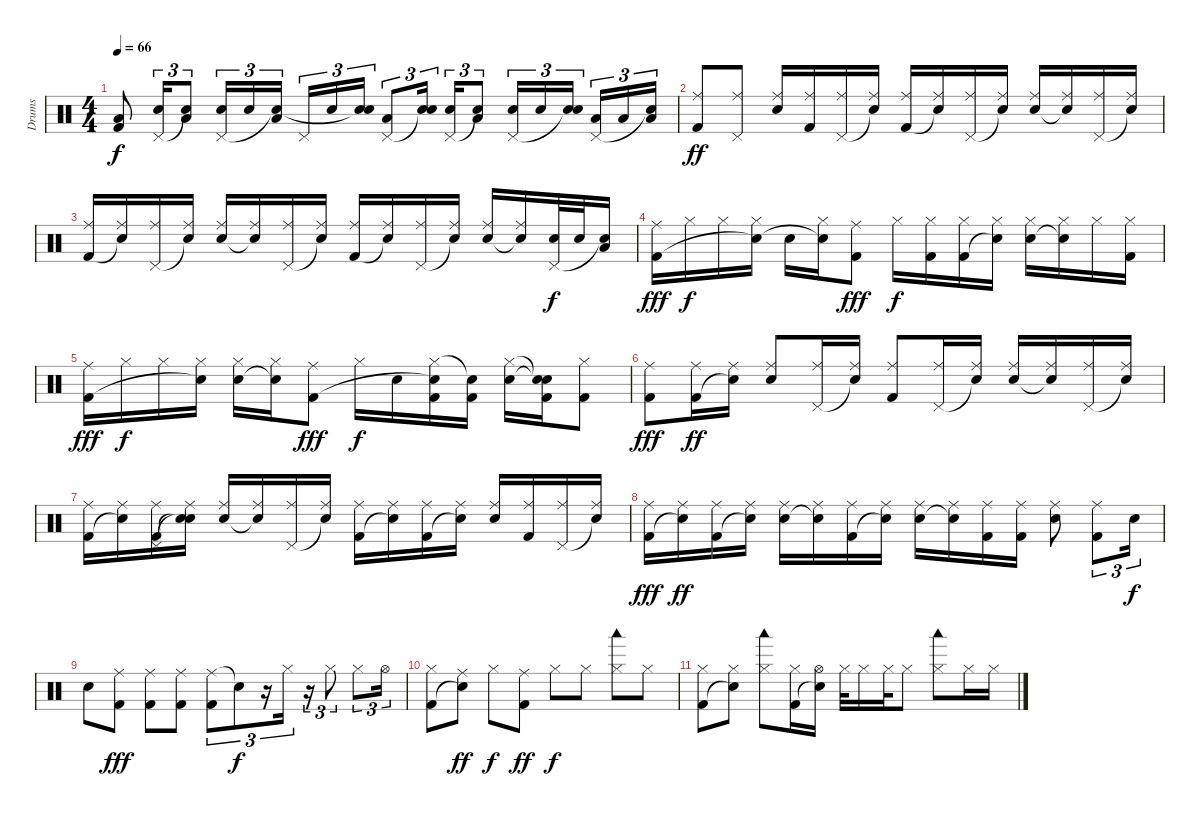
\track ("Drums" "Drums") {instrument percussion}
\staff {score}
\articulation defaults
\ts (4 4)
\tempo 66
\clef neutral
\ks c
("Low Tom (hit)" "Kick (hit) 2").8{dy f} ("Electric Snare (hit)" "Pedal Hi-Hat (hit)").16{tu (3 2)} ("Low Tom (hit)" "Snare (hit)"{t}).8{tu (3 2)} ("Electric Snare (hit)" "Pedal Hi-Hat (hit)").16{tu (3 2)} "Electric Snare (hit)".16{tu (3 2)} ("Low Tom (hit)" "Snare (hit)"{t}).16{tu (3 2)} "Pedal Hi-Hat (hit)".16{tu (3 2)} "Electric Snare (hit)".16{tu (3 2)} ("Electric Snare (hit)" "Snare (hit)"{t}).16{tu (3 2)} ("Low Tom (hit)" "Pedal Hi-Hat (hit)").8{tu (3 2)} ("Electric Snare (hit)" "Snare (hit)"{t}).16{tu (3 2)} ("Electric Snare (hit)" "Pedal Hi-Hat (hit)").16{tu (3 2)} ("Low Tom (hit)" "Snare (hit)"{t}).8{tu (3 2)} ("Electric Snare (hit)" "Pedal Hi-Hat (hit)").16{tu (3 2)} "Electric Snare (hit)".16{tu (3 2)} ("Electric Snare (hit)" "Snare (hit)"{t}).16{tu (3 2)} ("Low Tom (hit)" "Pedal Hi-Hat (hit)").16{tu (3 2)} "Low Tom (hit)".16{tu (3 2)} ("Low Tom (hit)" "Snare (hit)"{t}).16{tu (3 2)} |
("Ride (middle)" "Kick (hit) 2").8{dy ff} ("Ride (middle)" "Pedal Hi-Hat (hit)").8 ("Ride (middle)" "Electric Snare (hit)").16 ("Ride (middle)" "Kick (hit) 2").16 ("Ride (middle)" "Pedal Hi-Hat (hit)").16 ("Ride (middle)" "Snare (hit)"{t}).16 ("Ride (middle)" "Kick (hit) 2").16 ("Ride (middle)" "Snare (hit)"{t}).16 ("Ride (middle)" "Pedal Hi-Hat (hit)").16 ("Ride (middle)" "Snare (hit)"{t}).16 ("Ride (middle)" "Electric Snare (hit)").16 ("Ride (middle)" "Snare (hit)"{t}).16 ("Ride (middle)" "Pedal Hi-Hat (hit)").16 ("Ride (middle)" "Snare (hit)"{t}).16 |
("Ride (middle)" "Kick (hit) 2").16 ("Ride (middle)" "Snare (hit)"{t}).16 ("Ride (middle)" "Pedal Hi-Hat (hit)").16 ("Ride (middle)" "Snare (hit)"{t}).16 ("Ride (middle)" "Electric Snare (hit)").16 ("Ride (middle)" "Snare (hit)"{t}).16 ("Ride (middle)" "Pedal Hi-Hat (hit)").16 ("Ride (middle)" "Snare (hit)"{t}).16 ("Ride (middle)" "Kick (hit) 2").16 ("Ride (middle)" "Snare (hit)"{t}).16 ("Ride (middle)" "Pedal Hi-Hat (hit)").16 ("Ride (middle)" "Snare (hit)"{t}).16 ("Ride (middle)" "Electric Snare (hit)").16 ("Ride (middle)" "Snare (hit)"{t}).16 ("Electric Snare (hit)" "Pedal Hi-Hat (hit)").32{dy f} "Electric Snare (hit)".32 ("Low Tom (hit)" "Snare (hit)"{t}).16 |
("Ride (middle)" "Kick (hit) 2").16{dy fff} "Hi-Hat (closed)".16{dy f} "Hi-Hat (closed)".16 ("Hi-Hat (closed)" "Snare (hit)"{t}).16 "Electric Snare (hit)".16 ("Hi-Hat (closed)" "Snare (hit)"{t}).16 ("Ride (middle)" "Kick (hit) 2").8{dy fff} "Hi-Hat (closed)".16{dy f} ("Hi-Hat (closed)" "Kick (hit) 2").16 ("Hi-Hat (closed)" "Kick (hit) 2").16 ("Hi-Hat (closed)" "Snare (hit)"{t}).16 ("Hi-Hat (closed)" "Electric Snare (hit)").16 ("Hi-Hat (closed)" "Snare (hit)"{t}).16 "Hi-Hat (closed)".16 ("Hi-Hat (closed)" "Kick (hit) 2").16 |
("Ride (middle)" "Kick (hit) 2").16{dy fff} "Hi-Hat (closed)".16{dy f} "Hi-Hat (closed)".16 ("Hi-Hat (closed)" "Snare (hit)"{t}).16 ("Hi-Hat (closed)" "Electric Snare (hit)").16 ("Hi-Hat (closed)" "Snare (hit)"{t}).16 ("Ride (middle)" "Kick (hit) 2").8{dy fff} "Hi-Hat (closed)".16{dy f} "Electric Snare (hit)".16 ("Hi-Hat (closed)" "Snare (hit)"{t} "Kick (hit) 2").16 ("Snare (hit)"{t} "Kick (hit) 2").16 ("Hi-Hat (closed)" "Electric Snare (hit)").16 ("Snare (hit)"{t} "Snare (hit)"{t} "Kick (hit) 2").16 ("Hi-Hat (closed)" "Kick (hit) 2").8 |
("Ride (middle)" "Kick (hit) 2").8{dy fff} ("Ride (middle)" "Kick (hit) 2").16{dy ff} ("Ride (middle)" "Snare (hit)"{t}).16 ("Ride (middle)" "Electric Snare (hit)").8 ("Ride (middle)" "Pedal Hi-Hat (hit)").16 ("Ride (middle)" "Snare (hit)"{t}).16 ("Ride (middle)" "Kick (hit) 2").8 ("Ride (middle)" "Pedal Hi-Hat (hit)").16 ("Ride (middle)" "Snare (hit)"{t}).16 ("Ride (middle)" "Electric Snare (hit)").16 ("Ride (middle)" "Snare (hit)"{t}).16 ("Ride (middle)" "Pedal Hi-Hat (hit)").16 ("Ride (middle)" "Snare (hit)"{t}).16 |
("Ride (middle)" "Kick (hit) 2").16 ("Ride (middle)" "Snare (hit)"{t}).16 ("Ride (middle)" "Kick (hit) 2" "Pedal Hi-Hat (hit)").16 ("Ride (middle)" "Snare (hit)"{t} "Snare (hit)"{t}).16 ("Ride (middle)" "Electric Snare (hit)").16 ("Ride (middle)" "Snare (hit)"{t}).16 ("Ride (middle)" "Pedal Hi-Hat (hit)").16 ("Ride (middle)" "Snare (hit)"{t}).16 ("Ride (middle)" "Kick (hit) 2").16 ("Ride (middle)" "Snare (hit)"{t}).16 ("Ride (middle)" "Kick (hit) 2").16 ("Ride (middle)" "Snare (hit)"{t}).16 ("Ride (middle)" "Electric Snare (hit)").16 ("Ride (middle)" "Kick (hit) 2").16 ("Ride (middle)" "Pedal Hi-Hat (hit)").16 ("Ride (middle)" "Snare (hit)"{t}).16 |
("Ride (middle)" "Kick (hit) 2").16{dy fff} ("Ride (middle)" "Snare (hit)"{t}).16{dy ff} ("Ride (middle)" "Kick (hit) 2").16 ("Ride (middle)" "Snare (hit)"{t}).16 ("Ride (middle)" "Electric Snare (hit)").16 ("Ride (middle)" "Snare (hit)"{t}).16 ("Ride (middle)" "Kick (hit) 2").16 ("Ride (middle)" "Snare (hit)"{t}).16 ("Ride (middle)" "Electric Snare (hit)").16 ("Ride (middle)" "Snare (hit)"{t}).16 ("Ride (middle)" "Kick (hit) 2").16 ("Ride (middle)" "Kick (hit) 2").16 ("Ride (middle)" "Electric Snare (hit)").8 ("Ride (middle)" "Kick (hit) 2").8{tu (3 2)} "Electric Snare (hit)".16{tu (3 2) dy f} |
"Electric Snare (hit)".8 ("Ride (middle)" "Kick (hit) 2").8{dy fff} ("Ride (middle)" "Kick (hit) 2").8 ("Ride (middle)" "Kick (hit) 2").8 ("Ride (middle)" "Kick (hit) 2").8{tu (3 2)} "Snare (hit)"{t}.8{tu (3 2) dy f} r.16{tu (3 2)} "Hi-Hat (closed)".16{tu (3 2)} r.16{tu (3 2)} "Hi-Hat (closed)".8{tu (3 2)} "Hi-Hat (closed)".8{tu (3 2)} "Hi-Hat (open)".16{tu (3 2)} |
("Hi-Hat (closed)" "Kick (hit) 2").8{volume 0} ("Ride (middle)" "Snare (hit)"{t}).8{dy ff} "Hi-Hat (closed)".8{dy f} ("Ride (middle)" "Kick (hit) 2").8{dy ff} "Hi-Hat (closed)".8{dy f} "Hi-Hat (closed)".8 ("Hi-Hat (closed)" "Woodblock low (hit)").8 "Hi-Hat (closed)".8 |
("Hi-Hat (closed)" "Kick (hit) 2").8 ("Hi-Hat (closed)" "Snare (hit)"{t}).8 ("Hi-Hat (closed)" "Woodblock low (hit)").8 ("Hi-Hat (closed)" "Kick (hit) 2").16 ("Hi-Hat (open)" "Snare (hit)"{t}).16 "Hi-Hat (closed)".32 "Hi-Hat (closed)".16 "Hi-Hat (closed)".32 "Hi-Hat (closed)".8 ("Hi-Hat (closed)" "Woodblock low (hit)").8 "Hi-Hat (closed)".16 "Hi-Hat (closed)".16
